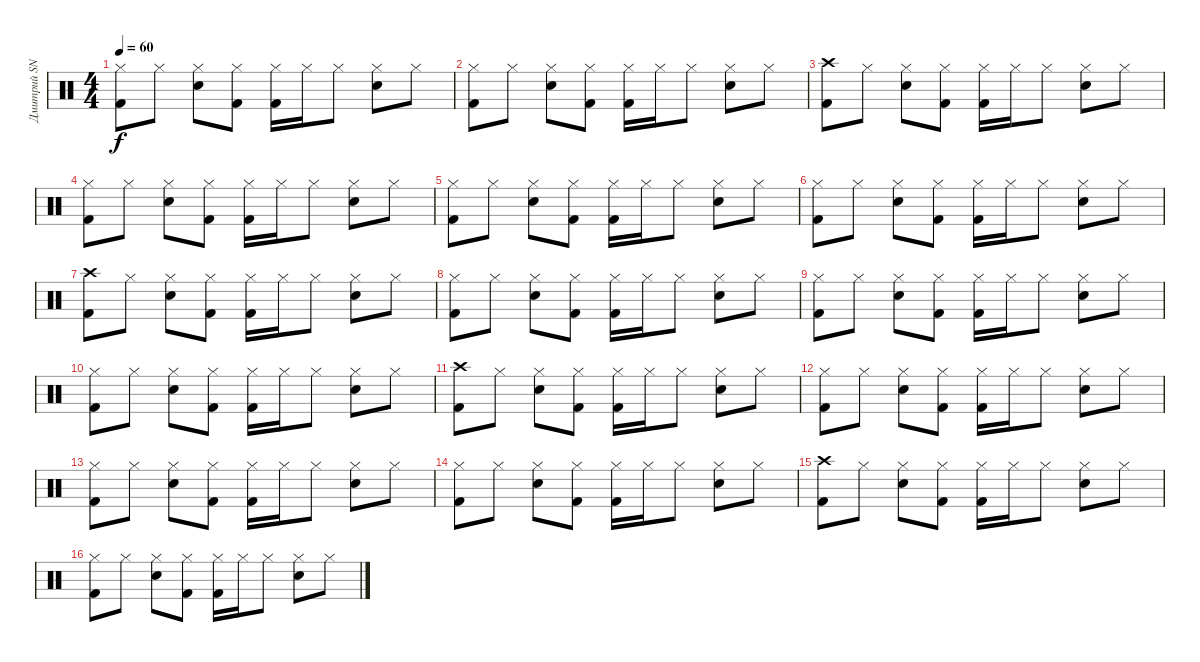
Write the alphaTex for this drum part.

\track ("Дмитрий SNAKE Хакимов" "Дмитрий SN") {instrument percussion}
\staff {score}
\articulation defaults
\ts (4 4)
\tempo 60
\clef neutral
\ks c
("Hi-Hat (closed)" "Kick (hit) 2").8{dy f} "Hi-Hat (closed)".8 ("Hi-Hat (closed)" "Electric Snare (hit)").8 ("Hi-Hat (closed)" "Kick (hit) 2").8 ("Hi-Hat (closed)" "Kick (hit) 2").16 "Hi-Hat (closed)".16 "Hi-Hat (closed)".8 ("Hi-Hat (closed)" "Electric Snare (hit)").8 "Hi-Hat (closed)".8 |
("Hi-Hat (closed)" "Kick (hit) 2").8 "Hi-Hat (closed)".8 ("Hi-Hat (closed)" "Electric Snare (hit)").8 ("Hi-Hat (closed)" "Kick (hit) 2").8 ("Hi-Hat (closed)" "Kick (hit) 2").16 "Hi-Hat (closed)".16 "Hi-Hat (closed)".8 ("Hi-Hat (closed)" "Electric Snare (hit)").8 "Hi-Hat (closed)".8 |
("Crash high (hit)" "Kick (hit) 2").8 "Hi-Hat (closed)".8 ("Hi-Hat (closed)" "Electric Snare (hit)").8 ("Hi-Hat (closed)" "Kick (hit) 2").8 ("Hi-Hat (closed)" "Kick (hit) 2").16 "Hi-Hat (closed)".16 "Hi-Hat (closed)".8 ("Hi-Hat (closed)" "Electric Snare (hit)").8 "Hi-Hat (closed)".8 |
("Hi-Hat (closed)" "Kick (hit) 2").8 "Hi-Hat (closed)".8 ("Hi-Hat (closed)" "Electric Snare (hit)").8 ("Hi-Hat (closed)" "Kick (hit) 2").8 ("Hi-Hat (closed)" "Kick (hit) 2").16 "Hi-Hat (closed)".16 "Hi-Hat (closed)".8 ("Hi-Hat (closed)" "Electric Snare (hit)").8 "Hi-Hat (closed)".8 |
("Hi-Hat (closed)" "Kick (hit) 2").8 "Hi-Hat (closed)".8 ("Hi-Hat (closed)" "Electric Snare (hit)").8 ("Hi-Hat (closed)" "Kick (hit) 2").8 ("Hi-Hat (closed)" "Kick (hit) 2").16 "Hi-Hat (closed)".16 "Hi-Hat (closed)".8 ("Hi-Hat (closed)" "Electric Snare (hit)").8 "Hi-Hat (closed)".8 |
("Hi-Hat (closed)" "Kick (hit) 2").8 "Hi-Hat (closed)".8 ("Hi-Hat (closed)" "Electric Snare (hit)").8 ("Hi-Hat (closed)" "Kick (hit) 2").8 ("Hi-Hat (closed)" "Kick (hit) 2").16 "Hi-Hat (closed)".16 "Hi-Hat (closed)".8 ("Hi-Hat (closed)" "Electric Snare (hit)").8 "Hi-Hat (closed)".8 |
("Crash high (hit)" "Kick (hit) 2").8 "Hi-Hat (closed)".8 ("Hi-Hat (closed)" "Electric Snare (hit)").8 ("Hi-Hat (closed)" "Kick (hit) 2").8 ("Hi-Hat (closed)" "Kick (hit) 2").16 "Hi-Hat (closed)".16 "Hi-Hat (closed)".8 ("Hi-Hat (closed)" "Electric Snare (hit)").8 "Hi-Hat (closed)".8 |
("Hi-Hat (closed)" "Kick (hit) 2").8 "Hi-Hat (closed)".8 ("Hi-Hat (closed)" "Electric Snare (hit)").8 ("Hi-Hat (closed)" "Kick (hit) 2").8 ("Hi-Hat (closed)" "Kick (hit) 2").16 "Hi-Hat (closed)".16 "Hi-Hat (closed)".8 ("Hi-Hat (closed)" "Electric Snare (hit)").8 "Hi-Hat (closed)".8 |
("Hi-Hat (closed)" "Kick (hit) 2").8 "Hi-Hat (closed)".8 ("Hi-Hat (closed)" "Electric Snare (hit)").8 ("Hi-Hat (closed)" "Kick (hit) 2").8 ("Hi-Hat (closed)" "Kick (hit) 2").16 "Hi-Hat (closed)".16 "Hi-Hat (closed)".8 ("Hi-Hat (closed)" "Electric Snare (hit)").8 "Hi-Hat (closed)".8 |
("Hi-Hat (closed)" "Kick (hit) 2").8 "Hi-Hat (closed)".8 ("Hi-Hat (closed)" "Electric Snare (hit)").8 ("Hi-Hat (closed)" "Kick (hit) 2").8 ("Hi-Hat (closed)" "Kick (hit) 2").16 "Hi-Hat (closed)".16 "Hi-Hat (closed)".8 ("Hi-Hat (closed)" "Electric Snare (hit)").8 "Hi-Hat (closed)".8 |
("Crash high (hit)" "Kick (hit) 2").8 "Hi-Hat (closed)".8 ("Hi-Hat (closed)" "Electric Snare (hit)").8 ("Hi-Hat (closed)" "Kick (hit) 2").8 ("Hi-Hat (closed)" "Kick (hit) 2").16 "Hi-Hat (closed)".16 "Hi-Hat (closed)".8 ("Hi-Hat (closed)" "Electric Snare (hit)").8 "Hi-Hat (closed)".8 |
("Hi-Hat (closed)" "Kick (hit) 2").8 "Hi-Hat (closed)".8 ("Hi-Hat (closed)" "Electric Snare (hit)").8 ("Hi-Hat (closed)" "Kick (hit) 2").8 ("Hi-Hat (closed)" "Kick (hit) 2").16 "Hi-Hat (closed)".16 "Hi-Hat (closed)".8 ("Hi-Hat (closed)" "Electric Snare (hit)").8 "Hi-Hat (closed)".8 |
("Hi-Hat (closed)" "Kick (hit) 2").8 "Hi-Hat (closed)".8 ("Hi-Hat (closed)" "Electric Snare (hit)").8 ("Hi-Hat (closed)" "Kick (hit) 2").8 ("Hi-Hat (closed)" "Kick (hit) 2").16 "Hi-Hat (closed)".16 "Hi-Hat (closed)".8 ("Hi-Hat (closed)" "Electric Snare (hit)").8 "Hi-Hat (closed)".8 |
("Hi-Hat (closed)" "Kick (hit) 2").8 "Hi-Hat (closed)".8 ("Hi-Hat (closed)" "Electric Snare (hit)").8 ("Hi-Hat (closed)" "Kick (hit) 2").8 ("Hi-Hat (closed)" "Kick (hit) 2").16 "Hi-Hat (closed)".16 "Hi-Hat (closed)".8 ("Hi-Hat (closed)" "Electric Snare (hit)").8 "Hi-Hat (closed)".8 |
("Crash high (hit)" "Kick (hit) 2").8 "Hi-Hat (closed)".8 ("Hi-Hat (closed)" "Electric Snare (hit)").8 ("Hi-Hat (closed)" "Kick (hit) 2").8 ("Hi-Hat (closed)" "Kick (hit) 2").16 "Hi-Hat (closed)".16 "Hi-Hat (closed)".8 ("Hi-Hat (closed)" "Electric Snare (hit)").8 "Hi-Hat (closed)".8 |
("Hi-Hat (closed)" "Kick (hit) 2").8 "Hi-Hat (closed)".8 ("Hi-Hat (closed)" "Electric Snare (hit)").8 ("Hi-Hat (closed)" "Kick (hit) 2").8 ("Hi-Hat (closed)" "Kick (hit) 2").16 "Hi-Hat (closed)".16 "Hi-Hat (closed)".8 ("Hi-Hat (closed)" "Electric Snare (hit)").8 "Hi-Hat (closed)".8
